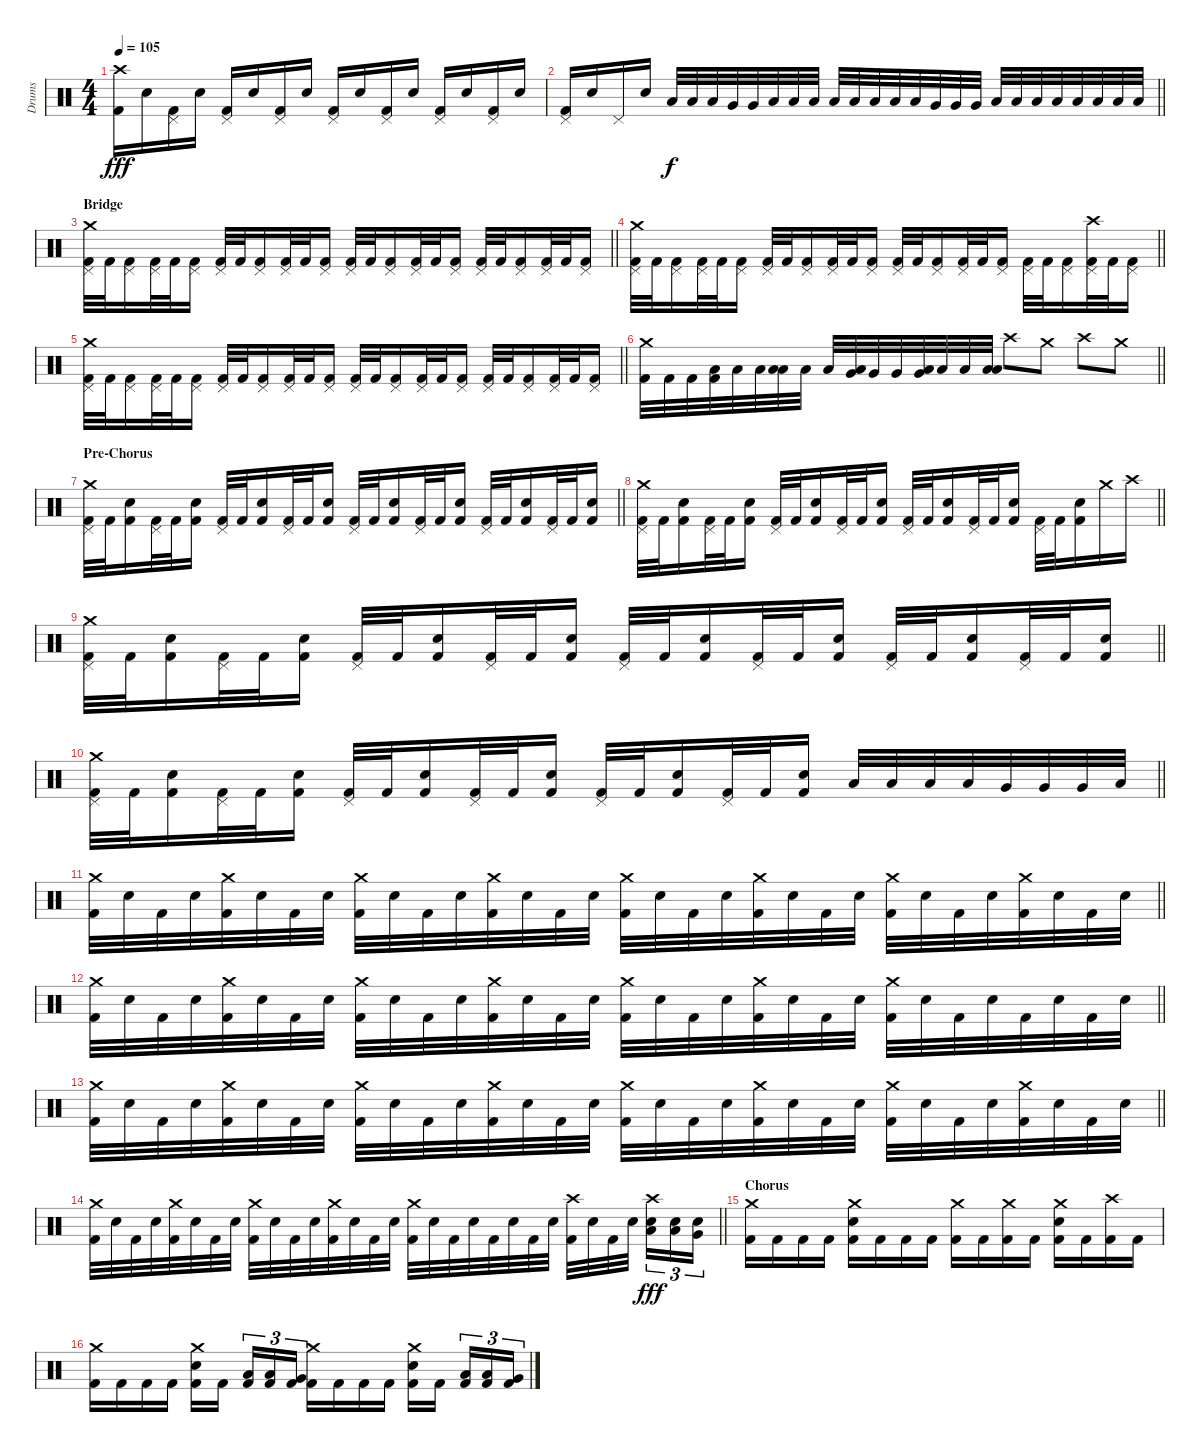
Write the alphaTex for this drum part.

\track ("Drums" "Drums") {instrument percussion}
\staff {score}
\articulation defaults
\ts (4 4)
\tempo 105
\clef neutral
\ks c
("Crash high (hit)" "Kick (hit) 2").16{dy fff} "Electric Snare (hit)".16 ("Pedal Hi-Hat (hit)" "Kick (hit) 2").16 "Electric Snare (hit)".16 ("Pedal Hi-Hat (hit)" "Kick (hit) 2").16 "Electric Snare (hit)".16 ("Pedal Hi-Hat (hit)" "Kick (hit) 2").16 "Electric Snare (hit)".16 ("Pedal Hi-Hat (hit)" "Kick (hit) 2").16 "Electric Snare (hit)".16 ("Pedal Hi-Hat (hit)" "Kick (hit) 2").16 "Electric Snare (hit)".16 ("Pedal Hi-Hat (hit)" "Kick (hit) 2").16 "Electric Snare (hit)".16 ("Pedal Hi-Hat (hit)" "Kick (hit) 2").16 "Electric Snare (hit)".16 |
\barLineRight lightlight
("Pedal Hi-Hat (hit)" "Kick (hit) 2").16 "Electric Snare (hit)".16 "Pedal Hi-Hat (hit)".16 "Electric Snare (hit)".16 "Low Floor Tom (hit)".32{dy f} "Low Floor Tom (hit)".32 "Low Floor Tom (hit)".32 "Very Low Tom (hit)".32 "Very Low Tom (hit)".32 "Low Tom (hit)".32 "Low Tom (hit)".32 "Low Tom (hit)".32 "Low Tom (hit)".32 "Low Tom (hit)".32 "Low Floor Tom (hit)".32 "Low Floor Tom (hit)".32 "Low Floor Tom (hit)".32 "Very Low Tom (hit)".32 "Very Low Tom (hit)".32 "Very Low Tom (hit)".32 "Low Tom (hit)".32 "Low Tom (hit)".32 "Low Tom (hit)".32 "Low Tom (hit)".32 "Low Tom (hit)".32 "Low Floor Tom (hit)".32 "Low Floor Tom (hit)".32 "Low Floor Tom (hit)".32 |
\section ("" "Bridge")
\barLineRight lightlight
("Crash medium (hit)" "Pedal Hi-Hat (hit)" "Kick (hit) 2").32 "Kick (hit) 2".32 ("Pedal Hi-Hat (hit)" "Kick (hit) 2").16 ("Pedal Hi-Hat (hit)" "Kick (hit) 2").32 "Kick (hit) 2".32 ("Pedal Hi-Hat (hit)" "Kick (hit) 2").16 ("Pedal Hi-Hat (hit)" "Kick (hit) 2").32 "Kick (hit) 2".32 ("Pedal Hi-Hat (hit)" "Kick (hit) 2").16 ("Pedal Hi-Hat (hit)" "Kick (hit) 2").32 "Kick (hit) 2".32 ("Pedal Hi-Hat (hit)" "Kick (hit) 2").16 ("Pedal Hi-Hat (hit)" "Kick (hit) 2").32 "Kick (hit) 2".32 ("Pedal Hi-Hat (hit)" "Kick (hit) 2").16 ("Pedal Hi-Hat (hit)" "Kick (hit) 2").32 "Kick (hit) 2".32 ("Pedal Hi-Hat (hit)" "Kick (hit) 2").16 ("Pedal Hi-Hat (hit)" "Kick (hit) 2").32 "Kick (hit) 2".32 ("Pedal Hi-Hat (hit)" "Kick (hit) 2").16 ("Pedal Hi-Hat (hit)" "Kick (hit) 2").32 "Kick (hit) 2".32 ("Pedal Hi-Hat (hit)" "Kick (hit) 2").16 |
\barLineRight lightlight
("Crash medium (hit)" "Pedal Hi-Hat (hit)" "Kick (hit) 2").32 "Kick (hit) 2".32 ("Pedal Hi-Hat (hit)" "Kick (hit) 2").16 ("Pedal Hi-Hat (hit)" "Kick (hit) 2").32 "Kick (hit) 2".32 ("Pedal Hi-Hat (hit)" "Kick (hit) 2").16 ("Pedal Hi-Hat (hit)" "Kick (hit) 2").32 "Kick (hit) 2".32 ("Pedal Hi-Hat (hit)" "Kick (hit) 2").16 ("Pedal Hi-Hat (hit)" "Kick (hit) 2").32 "Kick (hit) 2".32 ("Pedal Hi-Hat (hit)" "Kick (hit) 2").16 ("Pedal Hi-Hat (hit)" "Kick (hit) 2").32 "Kick (hit) 2".32 ("Pedal Hi-Hat (hit)" "Kick (hit) 2").16 ("Pedal Hi-Hat (hit)" "Kick (hit) 2").32 "Kick (hit) 2".32 ("Pedal Hi-Hat (hit)" "Kick (hit) 2").16 ("Pedal Hi-Hat (hit)" "Kick (hit) 2").32 "Kick (hit) 2".32 ("Pedal Hi-Hat (hit)" "Kick (hit) 2").16 ("Crash high (hit)" "Pedal Hi-Hat (hit)" "Kick (hit) 2").32 "Kick (hit) 2".32 ("Pedal Hi-Hat (hit)" "Kick (hit) 2").16 |
\barLineRight lightlight
("Crash medium (hit)" "Pedal Hi-Hat (hit)" "Kick (hit) 2").32 "Kick (hit) 2".32 ("Pedal Hi-Hat (hit)" "Kick (hit) 2").16 ("Pedal Hi-Hat (hit)" "Kick (hit) 2").32 "Kick (hit) 2".32 ("Pedal Hi-Hat (hit)" "Kick (hit) 2").16 ("Pedal Hi-Hat (hit)" "Kick (hit) 2").32 "Kick (hit) 2".32 ("Pedal Hi-Hat (hit)" "Kick (hit) 2").16 ("Pedal Hi-Hat (hit)" "Kick (hit) 2").32 "Kick (hit) 2".32 ("Pedal Hi-Hat (hit)" "Kick (hit) 2").16 ("Pedal Hi-Hat (hit)" "Kick (hit) 2").32 "Kick (hit) 2".32 ("Pedal Hi-Hat (hit)" "Kick (hit) 2").16 ("Pedal Hi-Hat (hit)" "Kick (hit) 2").32 "Kick (hit) 2".32 ("Pedal Hi-Hat (hit)" "Kick (hit) 2").16 ("Pedal Hi-Hat (hit)" "Kick (hit) 2").32 "Kick (hit) 2".32 ("Pedal Hi-Hat (hit)" "Kick (hit) 2").16 ("Pedal Hi-Hat (hit)" "Kick (hit) 2").32 "Kick (hit) 2".32 ("Pedal Hi-Hat (hit)" "Kick (hit) 2").16 |
\barLineRight lightlight
("Crash medium (hit)" "Kick (hit) 2").32 "Kick (hit) 2".32 "Kick (hit) 2".32 ("Low Tom (hit)" "Kick (hit) 2").32 "Low Tom (hit)".32 "Low Tom (hit)".32 ("Low Tom (hit)" "Low Floor Tom (hit)").32 "Low Floor Tom (hit)".32 "Low Floor Tom (hit)".32 ("Very Low Tom (hit)" "Low Floor Tom (hit)").32 "Very Low Tom (hit)".32 "Very Low Tom (hit)".32 ("Very Low Tom (hit)" "Low Floor Tom (hit)").32 "Low Floor Tom (hit)".32 "Low Floor Tom (hit)".32 ("Low Tom (hit)" "Low Floor Tom (hit)").32 "Crash high (hit)".8 "Crash medium (hit)".8 "Crash high (hit)".8 "Crash medium (hit)".8 |
\section ("" "Pre-Chorus")
\barLineRight lightlight
("Crash medium (hit)" "Pedal Hi-Hat (hit)" "Kick (hit) 2").32 "Kick (hit) 2".32 ("Electric Snare (hit)" "Kick (hit) 2").16 ("Pedal Hi-Hat (hit)" "Kick (hit) 2").32 "Kick (hit) 2".32 ("Electric Snare (hit)" "Kick (hit) 2").16 ("Pedal Hi-Hat (hit)" "Kick (hit) 2").32 "Kick (hit) 2".32 ("Electric Snare (hit)" "Kick (hit) 2").16 ("Pedal Hi-Hat (hit)" "Kick (hit) 2").32 "Kick (hit) 2".32 ("Electric Snare (hit)" "Kick (hit) 2").16 ("Pedal Hi-Hat (hit)" "Kick (hit) 2").32 "Kick (hit) 2".32 ("Electric Snare (hit)" "Kick (hit) 2").16 ("Pedal Hi-Hat (hit)" "Kick (hit) 2").32 "Kick (hit) 2".32 ("Electric Snare (hit)" "Kick (hit) 2").16 ("Pedal Hi-Hat (hit)" "Kick (hit) 2").32 "Kick (hit) 2".32 ("Electric Snare (hit)" "Kick (hit) 2").16 ("Pedal Hi-Hat (hit)" "Kick (hit) 2").32 "Kick (hit) 2".32 ("Electric Snare (hit)" "Kick (hit) 2").16 |
\barLineRight lightlight
("Crash medium (hit)" "Pedal Hi-Hat (hit)" "Kick (hit) 2").32 "Kick (hit) 2".32 ("Electric Snare (hit)" "Kick (hit) 2").16 ("Pedal Hi-Hat (hit)" "Kick (hit) 2").32 "Kick (hit) 2".32 ("Electric Snare (hit)" "Kick (hit) 2").16 ("Pedal Hi-Hat (hit)" "Kick (hit) 2").32 "Kick (hit) 2".32 ("Electric Snare (hit)" "Kick (hit) 2").16 ("Pedal Hi-Hat (hit)" "Kick (hit) 2").32 "Kick (hit) 2".32 ("Electric Snare (hit)" "Kick (hit) 2").16 ("Pedal Hi-Hat (hit)" "Kick (hit) 2").32 "Kick (hit) 2".32 ("Electric Snare (hit)" "Kick (hit) 2").16 ("Pedal Hi-Hat (hit)" "Kick (hit) 2").32 "Kick (hit) 2".32 ("Electric Snare (hit)" "Kick (hit) 2").16 ("Pedal Hi-Hat (hit)" "Kick (hit) 2").32 "Kick (hit) 2".32 ("Electric Snare (hit)" "Kick (hit) 2").16 "Crash medium (hit)".16 "Crash high (hit)".16 |
\barLineRight lightlight
("Crash medium (hit)" "Pedal Hi-Hat (hit)" "Kick (hit) 2").32 "Kick (hit) 2".32 ("Electric Snare (hit)" "Kick (hit) 2").16 ("Pedal Hi-Hat (hit)" "Kick (hit) 2").32 "Kick (hit) 2".32 ("Electric Snare (hit)" "Kick (hit) 2").16 ("Pedal Hi-Hat (hit)" "Kick (hit) 2").32 "Kick (hit) 2".32 ("Electric Snare (hit)" "Kick (hit) 2").16 ("Pedal Hi-Hat (hit)" "Kick (hit) 2").32 "Kick (hit) 2".32 ("Electric Snare (hit)" "Kick (hit) 2").16 ("Pedal Hi-Hat (hit)" "Kick (hit) 2").32 "Kick (hit) 2".32 ("Electric Snare (hit)" "Kick (hit) 2").16 ("Pedal Hi-Hat (hit)" "Kick (hit) 2").32 "Kick (hit) 2".32 ("Electric Snare (hit)" "Kick (hit) 2").16 ("Pedal Hi-Hat (hit)" "Kick (hit) 2").32 "Kick (hit) 2".32 ("Electric Snare (hit)" "Kick (hit) 2").16 ("Pedal Hi-Hat (hit)" "Kick (hit) 2").32 "Kick (hit) 2".32 ("Electric Snare (hit)" "Kick (hit) 2").16 |
\barLineRight lightlight
("Crash medium (hit)" "Pedal Hi-Hat (hit)" "Kick (hit) 2").32 "Kick (hit) 2".32 ("Electric Snare (hit)" "Kick (hit) 2").16 ("Pedal Hi-Hat (hit)" "Kick (hit) 2").32 "Kick (hit) 2".32 ("Electric Snare (hit)" "Kick (hit) 2").16 ("Pedal Hi-Hat (hit)" "Kick (hit) 2").32 "Kick (hit) 2".32 ("Electric Snare (hit)" "Kick (hit) 2").16 ("Pedal Hi-Hat (hit)" "Kick (hit) 2").32 "Kick (hit) 2".32 ("Electric Snare (hit)" "Kick (hit) 2").16 ("Pedal Hi-Hat (hit)" "Kick (hit) 2").32 "Kick (hit) 2".32 ("Electric Snare (hit)" "Kick (hit) 2").16 ("Pedal Hi-Hat (hit)" "Kick (hit) 2").32 "Kick (hit) 2".32 ("Electric Snare (hit)" "Kick (hit) 2").16 "Low Floor Tom (hit)".32 "Low Floor Tom (hit)".32 "Low Floor Tom (hit)".32 "Low Floor Tom (hit)".32 "Very Low Tom (hit)".32 "Very Low Tom (hit)".32 "Very Low Tom (hit)".32 "Low Tom (hit)".32 |
\barLineRight lightlight
("Crash medium (hit)" "Kick (hit) 2").32 "Electric Snare (hit)".32 "Kick (hit) 2".32 "Electric Snare (hit)".32 ("Crash medium (hit)" "Kick (hit) 2").32 "Electric Snare (hit)".32 "Kick (hit) 2".32 "Electric Snare (hit)".32 ("Crash medium (hit)" "Kick (hit) 2").32 "Electric Snare (hit)".32 "Kick (hit) 2".32 "Electric Snare (hit)".32 ("Crash medium (hit)" "Kick (hit) 2").32 "Electric Snare (hit)".32 "Kick (hit) 2".32 "Electric Snare (hit)".32 ("Crash medium (hit)" "Kick (hit) 2").32 "Electric Snare (hit)".32 "Kick (hit) 2".32 "Electric Snare (hit)".32 ("Crash medium (hit)" "Kick (hit) 2").32 "Electric Snare (hit)".32 "Kick (hit) 2".32 "Electric Snare (hit)".32 ("Crash medium (hit)" "Kick (hit) 2").32 "Electric Snare (hit)".32 "Kick (hit) 2".32 "Electric Snare (hit)".32 ("Crash medium (hit)" "Kick (hit) 2").32 "Electric Snare (hit)".32 "Kick (hit) 2".32 "Electric Snare (hit)".32 |
\barLineRight lightlight
("Crash medium (hit)" "Kick (hit) 2").32 "Electric Snare (hit)".32 "Kick (hit) 2".32 "Electric Snare (hit)".32 ("Crash medium (hit)" "Kick (hit) 2").32 "Electric Snare (hit)".32 "Kick (hit) 2".32 "Electric Snare (hit)".32 ("Crash medium (hit)" "Kick (hit) 2").32 "Electric Snare (hit)".32 "Kick (hit) 2".32 "Electric Snare (hit)".32 ("Crash medium (hit)" "Kick (hit) 2").32 "Electric Snare (hit)".32 "Kick (hit) 2".32 "Electric Snare (hit)".32 ("Crash medium (hit)" "Kick (hit) 2").32 "Electric Snare (hit)".32 "Kick (hit) 2".32 "Electric Snare (hit)".32 ("Crash medium (hit)" "Kick (hit) 2").32 "Electric Snare (hit)".32 "Kick (hit) 2".32 "Electric Snare (hit)".32 ("Crash medium (hit)" "Kick (hit) 2").32 "Electric Snare (hit)".32 "Kick (hit) 2".32 "Electric Snare (hit)".32 "Kick (hit) 2".32 "Electric Snare (hit)".32 "Kick (hit) 2".32 "Electric Snare (hit)".32 |
\barLineRight lightlight
("Crash medium (hit)" "Kick (hit) 2").32 "Electric Snare (hit)".32 "Kick (hit) 2".32 "Electric Snare (hit)".32 ("Crash medium (hit)" "Kick (hit) 2").32 "Electric Snare (hit)".32 "Kick (hit) 2".32 "Electric Snare (hit)".32 ("Crash medium (hit)" "Kick (hit) 2").32 "Electric Snare (hit)".32 "Kick (hit) 2".32 "Electric Snare (hit)".32 ("Crash medium (hit)" "Kick (hit) 2").32 "Electric Snare (hit)".32 "Kick (hit) 2".32 "Electric Snare (hit)".32 ("Crash medium (hit)" "Kick (hit) 2").32 "Electric Snare (hit)".32 "Kick (hit) 2".32 "Electric Snare (hit)".32 ("Crash medium (hit)" "Kick (hit) 2").32 "Electric Snare (hit)".32 "Kick (hit) 2".32 "Electric Snare (hit)".32 ("Crash medium (hit)" "Kick (hit) 2").32 "Electric Snare (hit)".32 "Kick (hit) 2".32 "Electric Snare (hit)".32 ("Crash medium (hit)" "Kick (hit) 2").32 "Electric Snare (hit)".32 "Kick (hit) 2".32 "Electric Snare (hit)".32 |
\barLineRight lightlight
("Crash medium (hit)" "Kick (hit) 2").32 "Electric Snare (hit)".32 "Kick (hit) 2".32 "Electric Snare (hit)".32 ("Crash medium (hit)" "Kick (hit) 2").32 "Electric Snare (hit)".32 "Kick (hit) 2".32 "Electric Snare (hit)".32 ("Crash medium (hit)" "Kick (hit) 2").32 "Electric Snare (hit)".32 "Kick (hit) 2".32 "Electric Snare (hit)".32 ("Crash medium (hit)" "Kick (hit) 2").32 "Electric Snare (hit)".32 "Kick (hit) 2".32 "Electric Snare (hit)".32 ("Crash medium (hit)" "Kick (hit) 2").32 "Electric Snare (hit)".32 "Kick (hit) 2".32 "Electric Snare (hit)".32 "Kick (hit) 2".32 "Electric Snare (hit)".32 "Kick (hit) 2".32 "Electric Snare (hit)".32 ("Crash high (hit)" "Kick (hit) 2").32 "Electric Snare (hit)".32 "Kick (hit) 2".32 "Electric Snare (hit)".32{beam splitsecondary} ("Crash high (hit)" "Low Floor Tom (hit)" "Electric Snare (hit)").16{tu (3 2) dy fff} ("Low Tom (hit)" "Electric Snare (hit)").16{tu (3 2)} ("Very Low Tom (hit)" "Electric Snare (hit)").16{tu (3 2)} |
\section ("" "Chorus")
("Crash medium (hit)" "Kick (hit) 2").16 "Kick (hit) 2".16 "Kick (hit) 2".16 "Kick (hit) 2".16 ("Crash medium (hit)" "Electric Snare (hit)" "Kick (hit) 2").16 "Kick (hit) 2".16 "Kick (hit) 2".16 "Kick (hit) 2".16 ("Crash medium (hit)" "Kick (hit) 2").16 "Kick (hit) 2".16 ("Crash medium (hit)" "Kick (hit) 2").16 "Kick (hit) 2".16 ("Crash medium (hit)" "Electric Snare (hit)" "Kick (hit) 2").16 "Kick (hit) 2".16 ("Crash high (hit)" "Kick (hit) 2").16 "Kick (hit) 2".16 |
("Crash medium (hit)" "Kick (hit) 2").16 "Kick (hit) 2".16 "Kick (hit) 2".16 "Kick (hit) 2".16 ("Crash medium (hit)" "Electric Snare (hit)" "Kick (hit) 2").16 "Kick (hit) 2".16{beam splitsecondary} ("Low Floor Tom (hit)" "Kick (hit) 2").16{tu (3 2)} ("Low Tom (hit)" "Kick (hit) 2").16{tu (3 2)} ("Very Low Tom (hit)" "Kick (hit) 2").16{tu (3 2)} ("Crash medium (hit)" "Kick (hit) 2").16 "Kick (hit) 2".16 "Kick (hit) 2".16 "Kick (hit) 2".16 ("Crash medium (hit)" "Electric Snare (hit)" "Kick (hit) 2").16 "Kick (hit) 2".16{beam splitsecondary} ("Low Floor Tom (hit)" "Kick (hit) 2").16{tu (3 2)} ("Low Tom (hit)" "Kick (hit) 2").16{tu (3 2)} ("Very Low Tom (hit)" "Kick (hit) 2").16{tu (3 2)}
